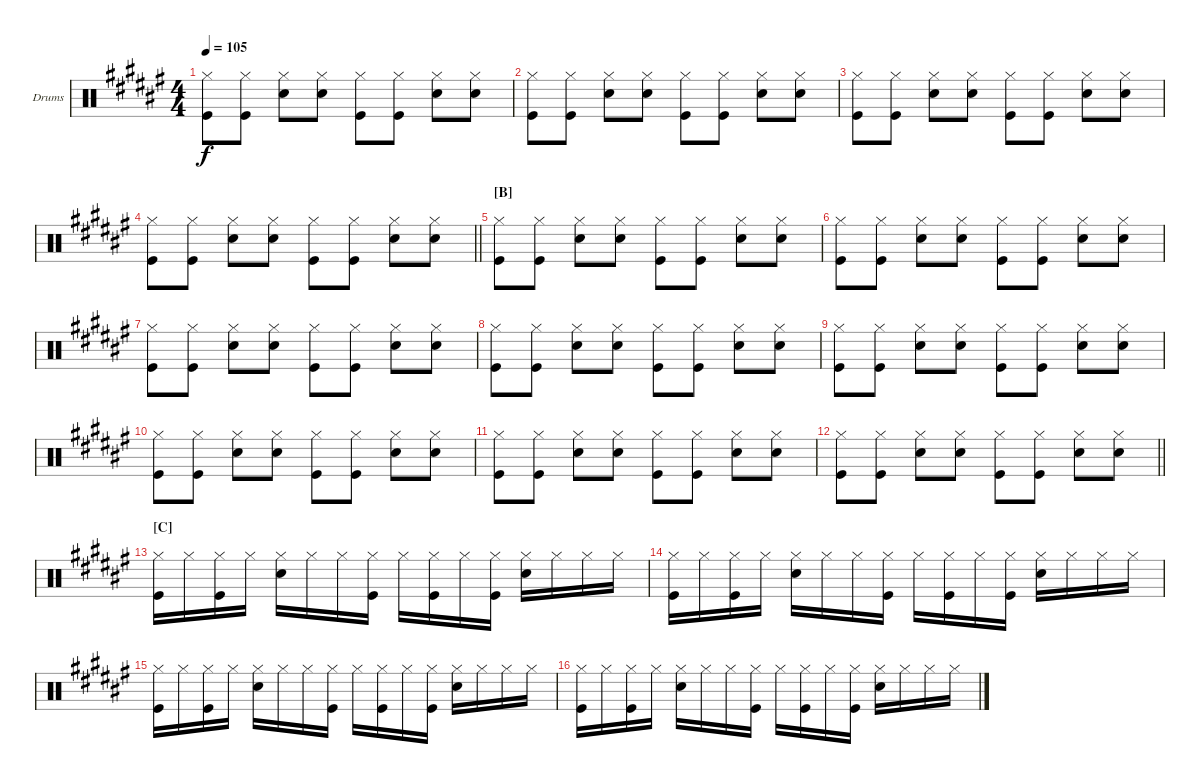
\bracketExtendMode groupsimilarinstruments
\firstSystemTrackNameOrientation horizontal
\otherSystemsTrackNameOrientation horizontal
\track ("Fab Moretti" "Drums") {instrument percussion}
\staff {score}
\articulation defaults
\ts (4 4)
\tempo 105
\clef neutral
\ks f#
("Hi-Hat (closed)" "Kick (hit)").8{dy f} ("Hi-Hat (closed)" "Kick (hit)").8 ("Hi-Hat (closed)" "Snare (hit) 2").8 ("Hi-Hat (closed)" "Snare (hit) 2").8 ("Hi-Hat (closed)" "Kick (hit)").8 ("Hi-Hat (closed)" "Kick (hit)").8 ("Hi-Hat (closed)" "Snare (hit) 2").8 ("Hi-Hat (closed)" "Snare (hit) 2").8 |
("Hi-Hat (closed)" "Kick (hit)").8 ("Hi-Hat (closed)" "Kick (hit)").8 ("Hi-Hat (closed)" "Snare (hit) 2").8 ("Hi-Hat (closed)" "Snare (hit) 2").8 ("Hi-Hat (closed)" "Kick (hit)").8 ("Hi-Hat (closed)" "Kick (hit)").8 ("Hi-Hat (closed)" "Snare (hit) 2").8 ("Hi-Hat (closed)" "Snare (hit) 2").8 |
("Hi-Hat (closed)" "Kick (hit)").8 ("Hi-Hat (closed)" "Kick (hit)").8 ("Hi-Hat (closed)" "Snare (hit) 2").8 ("Hi-Hat (closed)" "Snare (hit) 2").8 ("Hi-Hat (closed)" "Kick (hit)").8 ("Hi-Hat (closed)" "Kick (hit)").8 ("Hi-Hat (closed)" "Snare (hit) 2").8 ("Hi-Hat (closed)" "Snare (hit) 2").8 |
\barLineRight lightlight
("Hi-Hat (closed)" "Kick (hit)").8 ("Hi-Hat (closed)" "Kick (hit)").8 ("Hi-Hat (closed)" "Snare (hit) 2").8 ("Hi-Hat (closed)" "Snare (hit) 2").8 ("Hi-Hat (closed)" "Kick (hit)").8 ("Hi-Hat (closed)" "Kick (hit)").8 ("Hi-Hat (closed)" "Snare (hit) 2").8 ("Hi-Hat (closed)" "Snare (hit) 2").8 |
\section ("B" "")
("Hi-Hat (closed)" "Kick (hit)").8 ("Hi-Hat (closed)" "Kick (hit)").8 ("Hi-Hat (closed)" "Snare (hit) 2").8 ("Hi-Hat (closed)" "Snare (hit) 2").8 ("Hi-Hat (closed)" "Kick (hit)").8 ("Hi-Hat (closed)" "Kick (hit)").8 ("Hi-Hat (closed)" "Snare (hit) 2").8 ("Hi-Hat (closed)" "Snare (hit) 2").8 |
("Hi-Hat (closed)" "Kick (hit)").8 ("Hi-Hat (closed)" "Kick (hit)").8 ("Hi-Hat (closed)" "Snare (hit) 2").8 ("Hi-Hat (closed)" "Snare (hit) 2").8 ("Hi-Hat (closed)" "Kick (hit)").8 ("Hi-Hat (closed)" "Kick (hit)").8 ("Hi-Hat (closed)" "Snare (hit) 2").8 ("Hi-Hat (closed)" "Snare (hit) 2").8 |
("Hi-Hat (closed)" "Kick (hit)").8 ("Hi-Hat (closed)" "Kick (hit)").8 ("Hi-Hat (closed)" "Snare (hit) 2").8 ("Hi-Hat (closed)" "Snare (hit) 2").8 ("Hi-Hat (closed)" "Kick (hit)").8 ("Hi-Hat (closed)" "Kick (hit)").8 ("Hi-Hat (closed)" "Snare (hit) 2").8 ("Hi-Hat (closed)" "Snare (hit) 2").8 |
("Hi-Hat (closed)" "Kick (hit)").8 ("Hi-Hat (closed)" "Kick (hit)").8 ("Hi-Hat (closed)" "Snare (hit) 2").8 ("Hi-Hat (closed)" "Snare (hit) 2").8 ("Hi-Hat (closed)" "Kick (hit)").8 ("Hi-Hat (closed)" "Kick (hit)").8 ("Hi-Hat (closed)" "Snare (hit) 2").8 ("Hi-Hat (closed)" "Snare (hit) 2").8 |
("Hi-Hat (closed)" "Kick (hit)").8 ("Hi-Hat (closed)" "Kick (hit)").8 ("Hi-Hat (closed)" "Snare (hit) 2").8 ("Hi-Hat (closed)" "Snare (hit) 2").8 ("Hi-Hat (closed)" "Kick (hit)").8 ("Hi-Hat (closed)" "Kick (hit)").8 ("Hi-Hat (closed)" "Snare (hit) 2").8 ("Hi-Hat (closed)" "Snare (hit) 2").8 |
("Hi-Hat (closed)" "Kick (hit)").8 ("Hi-Hat (closed)" "Kick (hit)").8 ("Hi-Hat (closed)" "Snare (hit) 2").8 ("Hi-Hat (closed)" "Snare (hit) 2").8 ("Hi-Hat (closed)" "Kick (hit)").8 ("Hi-Hat (closed)" "Kick (hit)").8 ("Hi-Hat (closed)" "Snare (hit) 2").8 ("Hi-Hat (closed)" "Snare (hit) 2").8 |
("Hi-Hat (closed)" "Kick (hit)").8 ("Hi-Hat (closed)" "Kick (hit)").8 ("Hi-Hat (closed)" "Snare (hit) 2").8 ("Hi-Hat (closed)" "Snare (hit) 2").8 ("Hi-Hat (closed)" "Kick (hit)").8 ("Hi-Hat (closed)" "Kick (hit)").8 ("Hi-Hat (closed)" "Snare (hit) 2").8 ("Hi-Hat (closed)" "Snare (hit) 2").8 |
\barLineRight lightlight
("Hi-Hat (closed)" "Kick (hit)").8 ("Hi-Hat (closed)" "Kick (hit)").8 ("Hi-Hat (closed)" "Snare (hit) 2").8 ("Hi-Hat (closed)" "Snare (hit) 2").8 ("Hi-Hat (closed)" "Kick (hit)").8 ("Hi-Hat (closed)" "Kick (hit)").8 ("Hi-Hat (closed)" "Snare (hit) 2").8 ("Hi-Hat (closed)" "Snare (hit) 2").8 |
\section ("C" "")
("Hi-Hat (closed)" "Kick (hit)").16 "Hi-Hat (closed)".16 ("Hi-Hat (closed)" "Kick (hit)").16 "Hi-Hat (closed)".16 ("Snare (hit) 2" "Hi-Hat (closed)").16 "Hi-Hat (closed)".16 "Hi-Hat (closed)".16 ("Hi-Hat (closed)" "Kick (hit)").16 "Hi-Hat (closed)".16 ("Hi-Hat (closed)" "Kick (hit)").16 "Hi-Hat (closed)".16 ("Hi-Hat (closed)" "Kick (hit)").16 ("Snare (hit) 2" "Hi-Hat (closed)").16 "Hi-Hat (closed)".16 "Hi-Hat (closed)".16 "Hi-Hat (closed)".16 |
("Hi-Hat (closed)" "Kick (hit)").16 "Hi-Hat (closed)".16 ("Hi-Hat (closed)" "Kick (hit)").16 "Hi-Hat (closed)".16 ("Snare (hit) 2" "Hi-Hat (closed)").16 "Hi-Hat (closed)".16 "Hi-Hat (closed)".16 ("Hi-Hat (closed)" "Kick (hit)").16 "Hi-Hat (closed)".16 ("Hi-Hat (closed)" "Kick (hit)").16 "Hi-Hat (closed)".16 ("Hi-Hat (closed)" "Kick (hit)").16 ("Snare (hit) 2" "Hi-Hat (closed)").16 "Hi-Hat (closed)".16 "Hi-Hat (closed)".16 "Hi-Hat (closed)".16 |
("Hi-Hat (closed)" "Kick (hit)").16 "Hi-Hat (closed)".16 ("Hi-Hat (closed)" "Kick (hit)").16 "Hi-Hat (closed)".16 ("Snare (hit) 2" "Hi-Hat (closed)").16 "Hi-Hat (closed)".16 "Hi-Hat (closed)".16 ("Hi-Hat (closed)" "Kick (hit)").16 "Hi-Hat (closed)".16 ("Hi-Hat (closed)" "Kick (hit)").16 "Hi-Hat (closed)".16 ("Hi-Hat (closed)" "Kick (hit)").16 ("Snare (hit) 2" "Hi-Hat (closed)").16 "Hi-Hat (closed)".16 "Hi-Hat (closed)".16 "Hi-Hat (closed)".16 |
("Hi-Hat (closed)" "Kick (hit)").16 "Hi-Hat (closed)".16 ("Hi-Hat (closed)" "Kick (hit)").16 "Hi-Hat (closed)".16 ("Snare (hit) 2" "Hi-Hat (closed)").16 "Hi-Hat (closed)".16 "Hi-Hat (closed)".16 ("Hi-Hat (closed)" "Kick (hit)").16 "Hi-Hat (closed)".16 ("Hi-Hat (closed)" "Kick (hit)").16 "Hi-Hat (closed)".16 ("Hi-Hat (closed)" "Kick (hit)").16 ("Snare (hit) 2" "Hi-Hat (closed)").16 "Hi-Hat (closed)".16 "Hi-Hat (closed)".16 "Hi-Hat (closed)".16
